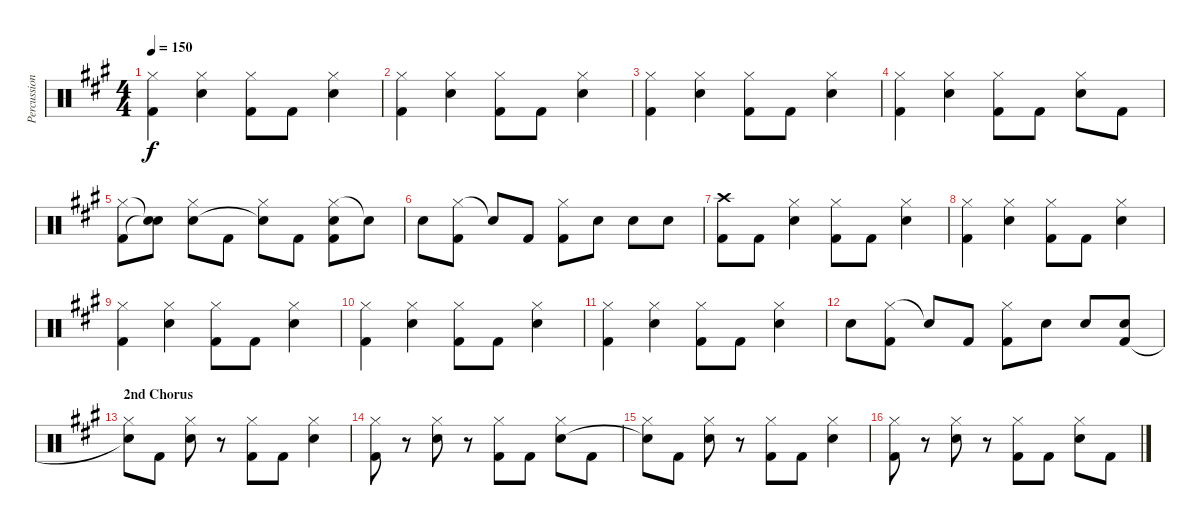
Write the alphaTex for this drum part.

\track ("Percussion" "Percussion") {instrument percussion}
\staff {score}
\articulation defaults
\ts (4 4)
\tempo 150
\clef neutral
\ks f#minor
("Hi-Hat (closed)" "Kick (hit) 2").4{dy f} ("Hi-Hat (closed)" "Snare (hit) 2").4 ("Hi-Hat (closed)" "Kick (hit) 2").8 "Kick (hit) 2".8 ("Hi-Hat (closed)" "Snare (hit) 2").4 |
("Hi-Hat (closed)" "Kick (hit) 2").4 ("Hi-Hat (closed)" "Snare (hit) 2").4 ("Hi-Hat (closed)" "Kick (hit) 2").8 "Kick (hit) 2".8 ("Hi-Hat (closed)" "Snare (hit) 2").4 |
("Hi-Hat (closed)" "Kick (hit) 2").4 ("Hi-Hat (closed)" "Snare (hit) 2").4 ("Hi-Hat (closed)" "Kick (hit) 2").8 "Kick (hit) 2".8 ("Hi-Hat (closed)" "Snare (hit) 2").4 |
("Hi-Hat (closed)" "Kick (hit) 2").4 ("Hi-Hat (closed)" "Snare (hit) 2").4 ("Hi-Hat (closed)" "Kick (hit) 2").8 "Kick (hit) 2".8 ("Hi-Hat (closed)" "Snare (hit) 2").8 "Kick (hit) 2".8 |
("Hi-Hat (closed)" "Kick (hit) 2").8 ("Snare (hit)"{t} "Snare (hit)"{t}).8 ("Hi-Hat (closed)" "Snare (hit) 2").8 "Kick (hit) 2".8 ("Hi-Hat (closed)" "Snare (hit)"{t}).8 "Kick (hit) 2".8 ("Hi-Hat (closed)" "Snare (hit) 2" "Kick (hit) 2").8 "Snare (hit)"{t}.8 |
"Snare (hit) 2".8 ("Hi-Hat (closed)" "Kick (hit) 2").8 "Snare (hit)"{t}.8 "Kick (hit) 2".8 ("Hi-Hat (closed)" "Kick (hit) 2").8 "Snare (hit) 2".8 "Snare (hit) 2".8 "Snare (hit) 2".8 |
("Crash high (hit)" "Kick (hit) 2").8 "Kick (hit) 2".8 ("Hi-Hat (closed)" "Snare (hit) 2").4 ("Hi-Hat (closed)" "Kick (hit) 2").8 "Kick (hit) 2".8 ("Hi-Hat (closed)" "Snare (hit) 2").4 |
("Hi-Hat (closed)" "Kick (hit) 2").4 ("Hi-Hat (closed)" "Snare (hit) 2").4 ("Hi-Hat (closed)" "Kick (hit) 2").8 "Kick (hit) 2".8 ("Hi-Hat (closed)" "Snare (hit) 2").4 |
("Hi-Hat (closed)" "Kick (hit) 2").4 ("Hi-Hat (closed)" "Snare (hit) 2").4 ("Hi-Hat (closed)" "Kick (hit) 2").8 "Kick (hit) 2".8 ("Hi-Hat (closed)" "Snare (hit) 2").4 |
("Hi-Hat (closed)" "Kick (hit) 2").4 ("Hi-Hat (closed)" "Snare (hit) 2").4 ("Hi-Hat (closed)" "Kick (hit) 2").8 "Kick (hit) 2".8 ("Hi-Hat (closed)" "Snare (hit) 2").4 |
("Hi-Hat (closed)" "Kick (hit) 2").4 ("Hi-Hat (closed)" "Snare (hit) 2").4 ("Hi-Hat (closed)" "Kick (hit) 2").8 "Kick (hit) 2".8 ("Hi-Hat (closed)" "Snare (hit) 2").4 |
"Snare (hit) 2".8 ("Hi-Hat (closed)" "Kick (hit) 2").8 "Snare (hit)"{t}.8 "Kick (hit) 2".8 ("Hi-Hat (closed)" "Kick (hit) 2").8 "Snare (hit) 2".8 "Snare (hit) 2".8 ("Snare (hit) 2" "Kick (hit) 2").8 |
\section ("" "2nd Chorus")
("Hi-Hat (closed)" "Snare (hit)"{t}).8 "Kick (hit) 2".8 ("Hi-Hat (closed)" "Snare (hit) 2").8 r.8 ("Hi-Hat (closed)" "Kick (hit) 2").8 "Kick (hit) 2".8 ("Hi-Hat (closed)" "Snare (hit) 2").4 |
("Hi-Hat (closed)" "Kick (hit) 2").8 r.8 ("Hi-Hat (closed)" "Snare (hit) 2").8 r.8 ("Hi-Hat (closed)" "Kick (hit) 2").8 "Kick (hit) 2".8 ("Hi-Hat (closed)" "Snare (hit) 2").8 "Kick (hit) 2".8 |
("Hi-Hat (closed)" "Snare (hit)"{t}).8 "Kick (hit) 2".8 ("Hi-Hat (closed)" "Snare (hit) 2").8 r.8 ("Hi-Hat (closed)" "Kick (hit) 2").8 "Kick (hit) 2".8 ("Hi-Hat (closed)" "Snare (hit) 2").4 |
("Hi-Hat (closed)" "Kick (hit) 2").8 r.8 ("Hi-Hat (closed)" "Snare (hit) 2").8 r.8 ("Hi-Hat (closed)" "Kick (hit) 2").8 "Kick (hit) 2".8 ("Hi-Hat (closed)" "Snare (hit) 2").8 "Kick (hit) 2".8
